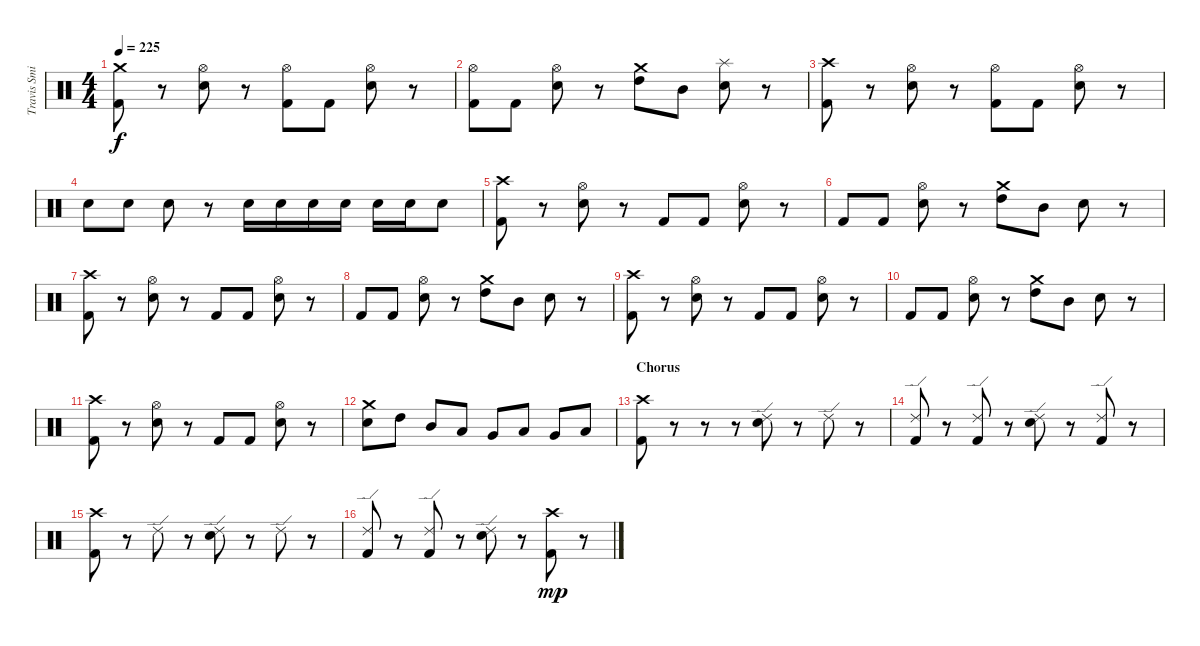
\track ("Travis Smith" "Travis Smi") {instrument percussion}
\staff {score}
\articulation defaults
\ts (4 4)
\tempo 225
\clef neutral
\ks c
("Crash medium (hit)" "Kick (hit) 2").8{dy f} r.8 ("Hi-Hat (open)" "Electric Snare (hit)").8 r.8 ("Hi-Hat (open)" "Kick (hit) 2").8 "Kick (hit) 2".8 ("Hi-Hat (open)" "Electric Snare (hit)").8 r.8 |
("Hi-Hat (open)" "Kick (hit) 2").8 "Kick (hit) 2".8 ("Hi-Hat (open)" "Electric Snare (hit)").8 r.8 ("Crash medium (hit)" "High Tom (hit)").8 "Mid Tom (hit)".8 ("Splash (hit)" "Electric Snare (hit)").8 r.8 |
("Crash high (hit)" "Kick (hit) 2").8 r.8 ("Hi-Hat (open)" "Electric Snare (hit)").8 r.8 ("Hi-Hat (open)" "Kick (hit) 2").8 "Kick (hit) 2".8 ("Hi-Hat (open)" "Electric Snare (hit)").8 r.8 |
"Electric Snare (hit)".8 "Electric Snare (hit)".8 "Electric Snare (hit)".8 r.8 "Electric Snare (hit)".16 "Electric Snare (hit)".16 "Electric Snare (hit)".16 "Electric Snare (hit)".16 "Electric Snare (hit)".16 "Electric Snare (hit)".16 "Electric Snare (hit)".8 |
("Crash high (hit)" "Kick (hit) 2").8 r.8 ("Hi-Hat (open)" "Electric Snare (hit)").8 r.8 "Kick (hit) 2".8 "Kick (hit) 2".8 ("Hi-Hat (open)" "Electric Snare (hit)").8 r.8 |
"Kick (hit) 2".8 "Kick (hit) 2".8 ("Hi-Hat (open)" "Electric Snare (hit)").8 r.8 ("Crash medium (hit)" "High Tom (hit)").8 "Mid Tom (hit)".8 "Electric Snare (hit)".8 r.8 |
("Crash high (hit)" "Kick (hit) 2").8 r.8 ("Hi-Hat (open)" "Electric Snare (hit)").8 r.8 "Kick (hit) 2".8 "Kick (hit) 2".8 ("Hi-Hat (open)" "Electric Snare (hit)").8 r.8 |
"Kick (hit) 2".8 "Kick (hit) 2".8 ("Hi-Hat (open)" "Electric Snare (hit)").8 r.8 ("Crash medium (hit)" "High Tom (hit)").8 "Mid Tom (hit)".8 "Electric Snare (hit)".8 r.8 |
("Crash high (hit)" "Kick (hit) 2").8 r.8 ("Hi-Hat (open)" "Electric Snare (hit)").8 r.8 "Kick (hit) 2".8 "Kick (hit) 2".8 ("Hi-Hat (open)" "Electric Snare (hit)").8 r.8 |
"Kick (hit) 2".8 "Kick (hit) 2".8 ("Hi-Hat (open)" "Electric Snare (hit)").8 r.8 ("Crash medium (hit)" "High Tom (hit)").8 "Mid Tom (hit)".8 "Electric Snare (hit)".8 r.8 |
("Crash high (hit)" "Kick (hit) 2").8 r.8 ("Hi-Hat (open)" "Electric Snare (hit)").8 r.8 "Kick (hit) 2".8 "Kick (hit) 2".8 ("Hi-Hat (open)" "Electric Snare (hit)").8 r.8 |
("Crash medium (hit)" "Electric Snare (hit)").8 "High Tom (hit)".8 "Mid Tom (hit)".8 "Low Tom (hit)".8 "Very Low Tom (hit)".8 "Low Floor Tom (hit)".8 "Very Low Tom (hit)".8 "Low Tom (hit)".8 |
\section ("" "Chorus")
("Crash high (hit)" "Kick (hit) 2").8 r.8 r.8 r.8 ("Ride (edge) 2" "Electric Snare (hit)").8 r.8 "Ride (edge) 2".8 r.8 |
("Ride (edge) 2" "Kick (hit) 2").8 r.8 ("Ride (edge) 2" "Kick (hit) 2").8 r.8 ("Ride (edge) 2" "Electric Snare (hit)").8 r.8 ("Ride (edge) 2" "Kick (hit) 2").8 r.8 |
("Crash high (hit)" "Kick (hit) 2").8 r.8 "Ride (edge) 2".8 r.8 ("Ride (edge) 2" "Electric Snare (hit)").8 r.8 "Ride (edge) 2".8 r.8 |
("Ride (edge) 2" "Kick (hit) 2").8 r.8 ("Ride (edge) 2" "Kick (hit) 2").8 r.8 ("Ride (edge) 2" "Electric Snare (hit)").8 r.8 ("Crash high (hit)" "Kick (hit) 2").8{dy mp} r.8
